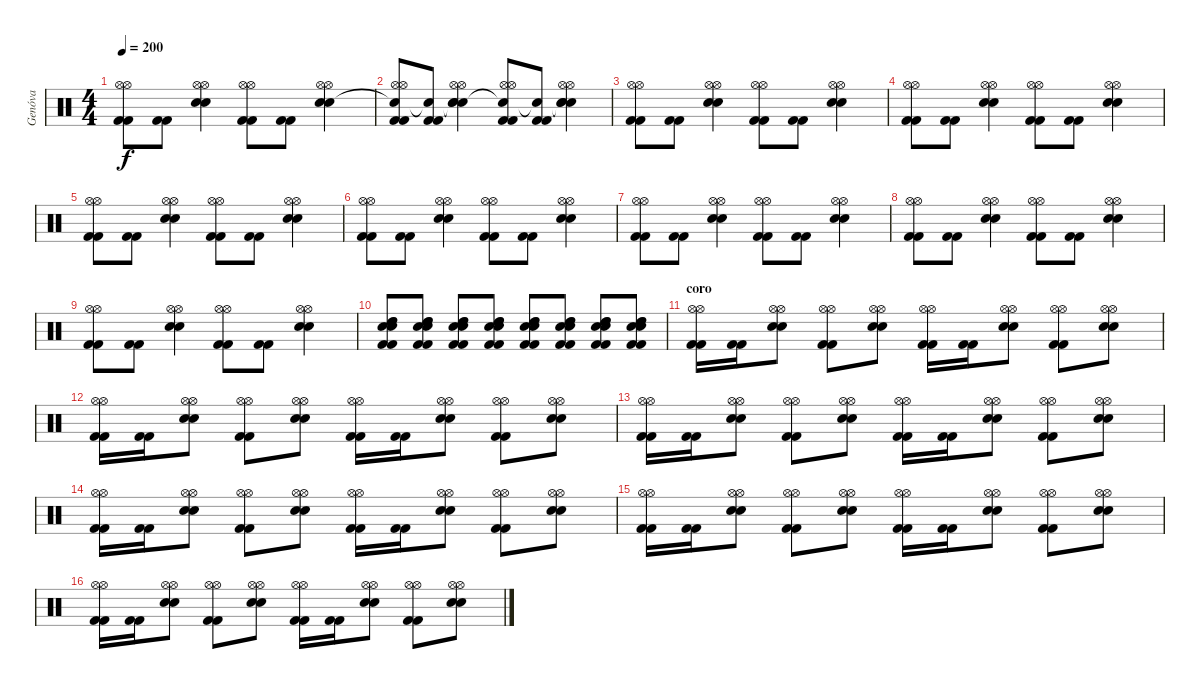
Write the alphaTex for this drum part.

\track ("Genóva" "Genóva") {instrument percussion}
\staff {score}
\articulation defaults
\ts (4 4)
\tempo 200
\clef neutral
\ks c
("Kick (hit) 2" "Kick (hit) 2" "Hi-Hat (open)" "Hi-Hat (open)").8{dy f} ("Kick (hit) 2" "Kick (hit) 2").8 ("Snare (hit) 2" "Snare (hit) 2" "Hi-Hat (open)" "Hi-Hat (open)").4 ("Kick (hit) 2" "Kick (hit) 2" "Hi-Hat (open)" "Hi-Hat (open)").8 ("Kick (hit) 2" "Kick (hit) 2").8 ("Snare (hit) 2" "Snare (hit) 2" "Hi-Hat (open)" "Hi-Hat (open)").4 |
("Snare (hit)"{t} "Kick (hit) 2" "Kick (hit) 2" "Hi-Hat (open)" "Hi-Hat (open)").8 ("Snare (hit)"{t} "Kick (hit) 2" "Kick (hit) 2").8 ("Snare (hit)"{t} "Snare (hit) 2" "Snare (hit) 2" "Hi-Hat (open)" "Hi-Hat (open)").4 ("Snare (hit)"{t} "Kick (hit) 2" "Kick (hit) 2" "Hi-Hat (open)" "Hi-Hat (open)").8 ("Snare (hit)"{t} "Kick (hit) 2" "Kick (hit) 2").8 ("Snare (hit)"{t} "Snare (hit) 2" "Snare (hit) 2" "Hi-Hat (open)" "Hi-Hat (open)").4 |
("Kick (hit) 2" "Kick (hit) 2" "Hi-Hat (open)" "Hi-Hat (open)").8 ("Kick (hit) 2" "Kick (hit) 2").8 ("Snare (hit) 2" "Snare (hit) 2" "Hi-Hat (open)" "Hi-Hat (open)").4 ("Kick (hit) 2" "Kick (hit) 2" "Hi-Hat (open)" "Hi-Hat (open)").8 ("Kick (hit) 2" "Kick (hit) 2").8 ("Snare (hit) 2" "Snare (hit) 2" "Hi-Hat (open)" "Hi-Hat (open)").4 |
("Kick (hit) 2" "Kick (hit) 2" "Hi-Hat (open)" "Hi-Hat (open)").8 ("Kick (hit) 2" "Kick (hit) 2").8 ("Snare (hit) 2" "Snare (hit) 2" "Hi-Hat (open)" "Hi-Hat (open)").4 ("Kick (hit) 2" "Kick (hit) 2" "Hi-Hat (open)" "Hi-Hat (open)").8 ("Kick (hit) 2" "Kick (hit) 2").8 ("Snare (hit) 2" "Snare (hit) 2" "Hi-Hat (open)" "Hi-Hat (open)").4 |
("Kick (hit) 2" "Kick (hit) 2" "Hi-Hat (open)" "Hi-Hat (open)").8 ("Kick (hit) 2" "Kick (hit) 2").8 ("Snare (hit) 2" "Snare (hit) 2" "Hi-Hat (open)" "Hi-Hat (open)").4 ("Kick (hit) 2" "Kick (hit) 2" "Hi-Hat (open)" "Hi-Hat (open)").8 ("Kick (hit) 2" "Kick (hit) 2").8 ("Snare (hit) 2" "Snare (hit) 2" "Hi-Hat (open)" "Hi-Hat (open)").4 |
("Kick (hit) 2" "Kick (hit) 2" "Hi-Hat (open)" "Hi-Hat (open)").8 ("Kick (hit) 2" "Kick (hit) 2").8 ("Snare (hit) 2" "Snare (hit) 2" "Hi-Hat (open)" "Hi-Hat (open)").4 ("Kick (hit) 2" "Kick (hit) 2" "Hi-Hat (open)" "Hi-Hat (open)").8 ("Kick (hit) 2" "Kick (hit) 2").8 ("Snare (hit) 2" "Snare (hit) 2" "Hi-Hat (open)" "Hi-Hat (open)").4 |
("Kick (hit) 2" "Kick (hit) 2" "Hi-Hat (open)" "Hi-Hat (open)").8 ("Kick (hit) 2" "Kick (hit) 2").8 ("Snare (hit) 2" "Snare (hit) 2" "Hi-Hat (open)" "Hi-Hat (open)").4 ("Kick (hit) 2" "Kick (hit) 2" "Hi-Hat (open)" "Hi-Hat (open)").8 ("Kick (hit) 2" "Kick (hit) 2").8 ("Snare (hit) 2" "Snare (hit) 2" "Hi-Hat (open)" "Hi-Hat (open)").4 |
("Kick (hit) 2" "Kick (hit) 2" "Hi-Hat (open)" "Hi-Hat (open)").8 ("Kick (hit) 2" "Kick (hit) 2").8 ("Snare (hit) 2" "Snare (hit) 2" "Hi-Hat (open)" "Hi-Hat (open)").4 ("Kick (hit) 2" "Kick (hit) 2" "Hi-Hat (open)" "Hi-Hat (open)").8 ("Kick (hit) 2" "Kick (hit) 2").8 ("Snare (hit) 2" "Snare (hit) 2" "Hi-Hat (open)" "Hi-Hat (open)").4 |
("Kick (hit) 2" "Kick (hit) 2" "Hi-Hat (open)" "Hi-Hat (open)").8 ("Kick (hit) 2" "Kick (hit) 2").8 ("Snare (hit) 2" "Snare (hit) 2" "Hi-Hat (open)" "Hi-Hat (open)").4 ("Kick (hit) 2" "Kick (hit) 2" "Hi-Hat (open)" "Hi-Hat (open)").8 ("Kick (hit) 2" "Kick (hit) 2").8 ("Snare (hit) 2" "Snare (hit) 2" "Hi-Hat (open)" "Hi-Hat (open)").4 |
("Snare (hit) 2" "Snare (hit) 2" "High Tom (hit)" "High Tom (hit)" "Kick (hit) 2" "Kick (hit) 2").8 ("Snare (hit) 2" "Snare (hit) 2" "High Tom (hit)" "High Tom (hit)" "Kick (hit) 2" "Kick (hit) 2").8 ("Snare (hit) 2" "Snare (hit) 2" "High Tom (hit)" "High Tom (hit)" "Kick (hit) 2" "Kick (hit) 2").8 ("Snare (hit) 2" "Snare (hit) 2" "High Tom (hit)" "High Tom (hit)" "Kick (hit) 2" "Kick (hit) 2").8 ("Snare (hit) 2" "Snare (hit) 2" "High Tom (hit)" "High Tom (hit)" "Kick (hit) 2" "Kick (hit) 2").8 ("Snare (hit) 2" "Snare (hit) 2" "High Tom (hit)" "High Tom (hit)" "Kick (hit) 2" "Kick (hit) 2").8 ("Snare (hit) 2" "Snare (hit) 2" "High Tom (hit)" "High Tom (hit)" "Kick (hit) 2" "Kick (hit) 2").8 ("Snare (hit) 2" "Snare (hit) 2" "High Tom (hit)" "High Tom (hit)" "Kick (hit) 2" "Kick (hit) 2").8 |
\section ("" "coro")
("Kick (hit) 2" "Kick (hit) 2" "Hi-Hat (open)" "Hi-Hat (open)").16 ("Kick (hit) 2" "Kick (hit) 2").16 ("Snare (hit) 2" "Snare (hit) 2" "Hi-Hat (open)" "Hi-Hat (open)").8 ("Kick (hit) 2" "Kick (hit) 2" "Hi-Hat (open)" "Hi-Hat (open)").8 ("Snare (hit) 2" "Snare (hit) 2" "Hi-Hat (open)" "Hi-Hat (open)").8 ("Kick (hit) 2" "Kick (hit) 2" "Hi-Hat (open)" "Hi-Hat (open)").16 ("Kick (hit) 2" "Kick (hit) 2").16 ("Snare (hit) 2" "Snare (hit) 2" "Hi-Hat (open)" "Hi-Hat (open)").8 ("Kick (hit) 2" "Kick (hit) 2" "Hi-Hat (open)" "Hi-Hat (open)").8 ("Snare (hit) 2" "Snare (hit) 2" "Hi-Hat (open)" "Hi-Hat (open)").8 |
("Kick (hit) 2" "Kick (hit) 2" "Hi-Hat (open)" "Hi-Hat (open)").16 ("Kick (hit) 2" "Kick (hit) 2").16 ("Snare (hit) 2" "Snare (hit) 2" "Hi-Hat (open)" "Hi-Hat (open)").8 ("Kick (hit) 2" "Kick (hit) 2" "Hi-Hat (open)" "Hi-Hat (open)").8 ("Snare (hit) 2" "Snare (hit) 2" "Hi-Hat (open)" "Hi-Hat (open)").8 ("Kick (hit) 2" "Kick (hit) 2" "Hi-Hat (open)" "Hi-Hat (open)").16 ("Kick (hit) 2" "Kick (hit) 2").16 ("Snare (hit) 2" "Snare (hit) 2" "Hi-Hat (open)" "Hi-Hat (open)").8 ("Kick (hit) 2" "Kick (hit) 2" "Hi-Hat (open)" "Hi-Hat (open)").8 ("Snare (hit) 2" "Snare (hit) 2" "Hi-Hat (open)" "Hi-Hat (open)").8 |
("Kick (hit) 2" "Kick (hit) 2" "Hi-Hat (open)" "Hi-Hat (open)").16 ("Kick (hit) 2" "Kick (hit) 2").16 ("Snare (hit) 2" "Snare (hit) 2" "Hi-Hat (open)" "Hi-Hat (open)").8 ("Kick (hit) 2" "Kick (hit) 2" "Hi-Hat (open)" "Hi-Hat (open)").8 ("Snare (hit) 2" "Snare (hit) 2" "Hi-Hat (open)" "Hi-Hat (open)").8 ("Kick (hit) 2" "Kick (hit) 2" "Hi-Hat (open)" "Hi-Hat (open)").16 ("Kick (hit) 2" "Kick (hit) 2").16 ("Snare (hit) 2" "Snare (hit) 2" "Hi-Hat (open)" "Hi-Hat (open)").8 ("Kick (hit) 2" "Kick (hit) 2" "Hi-Hat (open)" "Hi-Hat (open)").8 ("Snare (hit) 2" "Snare (hit) 2" "Hi-Hat (open)" "Hi-Hat (open)").8 |
("Kick (hit) 2" "Kick (hit) 2" "Hi-Hat (open)" "Hi-Hat (open)").16 ("Kick (hit) 2" "Kick (hit) 2").16 ("Snare (hit) 2" "Snare (hit) 2" "Hi-Hat (open)" "Hi-Hat (open)").8 ("Kick (hit) 2" "Kick (hit) 2" "Hi-Hat (open)" "Hi-Hat (open)").8 ("Snare (hit) 2" "Snare (hit) 2" "Hi-Hat (open)" "Hi-Hat (open)").8 ("Kick (hit) 2" "Kick (hit) 2" "Hi-Hat (open)" "Hi-Hat (open)").16 ("Kick (hit) 2" "Kick (hit) 2").16 ("Snare (hit) 2" "Snare (hit) 2" "Hi-Hat (open)" "Hi-Hat (open)").8 ("Kick (hit) 2" "Kick (hit) 2" "Hi-Hat (open)" "Hi-Hat (open)").8 ("Snare (hit) 2" "Snare (hit) 2" "Hi-Hat (open)" "Hi-Hat (open)").8 |
("Kick (hit) 2" "Kick (hit) 2" "Hi-Hat (open)" "Hi-Hat (open)").16 ("Kick (hit) 2" "Kick (hit) 2").16 ("Snare (hit) 2" "Snare (hit) 2" "Hi-Hat (open)" "Hi-Hat (open)").8 ("Kick (hit) 2" "Kick (hit) 2" "Hi-Hat (open)" "Hi-Hat (open)").8 ("Snare (hit) 2" "Snare (hit) 2" "Hi-Hat (open)" "Hi-Hat (open)").8 ("Kick (hit) 2" "Kick (hit) 2" "Hi-Hat (open)" "Hi-Hat (open)").16 ("Kick (hit) 2" "Kick (hit) 2").16 ("Snare (hit) 2" "Snare (hit) 2" "Hi-Hat (open)" "Hi-Hat (open)").8 ("Kick (hit) 2" "Kick (hit) 2" "Hi-Hat (open)" "Hi-Hat (open)").8 ("Snare (hit) 2" "Snare (hit) 2" "Hi-Hat (open)" "Hi-Hat (open)").8 |
("Kick (hit) 2" "Kick (hit) 2" "Hi-Hat (open)" "Hi-Hat (open)").16 ("Kick (hit) 2" "Kick (hit) 2").16 ("Snare (hit) 2" "Snare (hit) 2" "Hi-Hat (open)" "Hi-Hat (open)").8 ("Kick (hit) 2" "Kick (hit) 2" "Hi-Hat (open)" "Hi-Hat (open)").8 ("Snare (hit) 2" "Snare (hit) 2" "Hi-Hat (open)" "Hi-Hat (open)").8 ("Kick (hit) 2" "Kick (hit) 2" "Hi-Hat (open)" "Hi-Hat (open)").16 ("Kick (hit) 2" "Kick (hit) 2").16 ("Snare (hit) 2" "Snare (hit) 2" "Hi-Hat (open)" "Hi-Hat (open)").8 ("Kick (hit) 2" "Kick (hit) 2" "Hi-Hat (open)" "Hi-Hat (open)").8 ("Snare (hit) 2" "Snare (hit) 2" "Hi-Hat (open)" "Hi-Hat (open)").8
